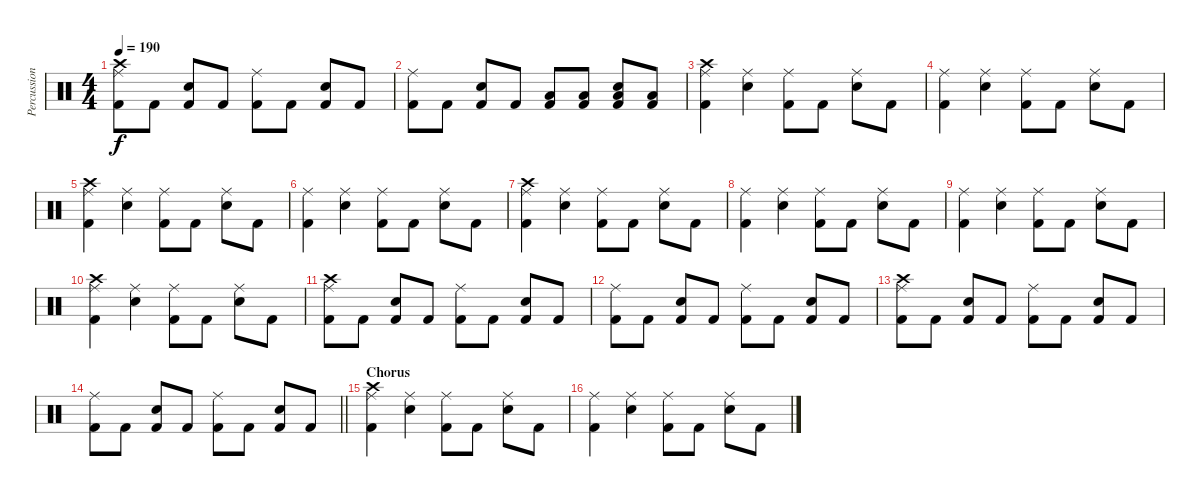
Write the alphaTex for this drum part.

\track ("Percussion" "Percussion") {instrument percussion}
\staff {score}
\articulation defaults
\ts (4 4)
\tempo 190
\clef neutral
\ks c
("Ride (middle)" "Kick (hit) 2" "Crash high (hit)").8{dy f} "Kick (hit) 2".8 ("Snare (hit) 2" "Kick (hit) 2").8 "Kick (hit) 2".8 ("Ride (middle)" "Kick (hit) 2").8 "Kick (hit) 2".8 ("Snare (hit) 2" "Kick (hit) 2").8 "Kick (hit) 2".8 |
("Ride (middle)" "Kick (hit) 2").8 "Kick (hit) 2".8 ("Snare (hit) 2" "Kick (hit) 2").8 "Kick (hit) 2".8 ("Low Floor Tom (hit)" "Kick (hit) 2").8 ("Low Floor Tom (hit)" "Kick (hit) 2").8 ("Low Floor Tom (hit)" "Snare (hit) 2" "Kick (hit) 2").8 ("Low Floor Tom (hit)" "Kick (hit) 2").8 |
("Ride (middle)" "Kick (hit) 2" "Crash high (hit)").4 ("Ride (middle)" "Snare (hit) 2").4 ("Ride (middle)" "Kick (hit) 2").8 "Kick (hit) 2".8 ("Ride (middle)" "Snare (hit) 2").8 "Kick (hit) 2".8 |
("Ride (middle)" "Kick (hit) 2").4 ("Ride (middle)" "Snare (hit) 2").4 ("Ride (middle)" "Kick (hit) 2").8 "Kick (hit) 2".8 ("Ride (middle)" "Snare (hit) 2").8 "Kick (hit) 2".8 |
("Ride (middle)" "Kick (hit) 2" "Crash high (hit)").4 ("Ride (middle)" "Snare (hit) 2").4 ("Ride (middle)" "Kick (hit) 2").8 "Kick (hit) 2".8 ("Ride (middle)" "Snare (hit) 2").8 "Kick (hit) 2".8 |
("Ride (middle)" "Kick (hit) 2").4 ("Ride (middle)" "Snare (hit) 2").4 ("Ride (middle)" "Kick (hit) 2").8 "Kick (hit) 2".8 ("Ride (middle)" "Snare (hit) 2").8 "Kick (hit) 2".8 |
("Ride (middle)" "Kick (hit) 2" "Crash high (hit)").4 ("Ride (middle)" "Snare (hit) 2").4 ("Ride (middle)" "Kick (hit) 2").8 "Kick (hit) 2".8 ("Ride (middle)" "Snare (hit) 2").8 "Kick (hit) 2".8 |
("Ride (middle)" "Kick (hit) 2").4 ("Ride (middle)" "Snare (hit) 2").4 ("Ride (middle)" "Kick (hit) 2").8 "Kick (hit) 2".8 ("Ride (middle)" "Snare (hit) 2").8 "Kick (hit) 2".8 |
("Ride (middle)" "Kick (hit) 2").4 ("Ride (middle)" "Snare (hit) 2").4 ("Ride (middle)" "Kick (hit) 2").8 "Kick (hit) 2".8 ("Ride (middle)" "Snare (hit) 2").8 "Kick (hit) 2".8 |
("Ride (middle)" "Kick (hit) 2" "Crash high (hit)").4 ("Ride (middle)" "Snare (hit) 2").4 ("Ride (middle)" "Kick (hit) 2").8 "Kick (hit) 2".8 ("Ride (middle)" "Snare (hit) 2").8 "Kick (hit) 2".8 |
("Ride (middle)" "Kick (hit) 2" "Crash high (hit)").8 "Kick (hit) 2".8 ("Snare (hit) 2" "Kick (hit) 2").8 "Kick (hit) 2".8 ("Ride (middle)" "Kick (hit) 2").8 "Kick (hit) 2".8 ("Snare (hit) 2" "Kick (hit) 2").8 "Kick (hit) 2".8 |
("Ride (middle)" "Kick (hit) 2").8 "Kick (hit) 2".8 ("Snare (hit) 2" "Kick (hit) 2").8 "Kick (hit) 2".8 ("Ride (middle)" "Kick (hit) 2").8 "Kick (hit) 2".8 ("Snare (hit) 2" "Kick (hit) 2").8 "Kick (hit) 2".8 |
("Ride (middle)" "Kick (hit) 2" "Crash high (hit)").8 "Kick (hit) 2".8 ("Snare (hit) 2" "Kick (hit) 2").8 "Kick (hit) 2".8 ("Ride (middle)" "Kick (hit) 2").8 "Kick (hit) 2".8 ("Snare (hit) 2" "Kick (hit) 2").8 "Kick (hit) 2".8 |
\barLineRight lightlight
("Ride (middle)" "Kick (hit) 2").8 "Kick (hit) 2".8 ("Snare (hit) 2" "Kick (hit) 2").8 "Kick (hit) 2".8 ("Ride (middle)" "Kick (hit) 2").8 "Kick (hit) 2".8 ("Snare (hit) 2" "Kick (hit) 2").8 "Kick (hit) 2".8 |
\section ("" "Chorus")
("Ride (middle)" "Kick (hit) 2" "Crash high (hit)").4 ("Ride (middle)" "Snare (hit) 2").4 ("Ride (middle)" "Kick (hit) 2").8 "Kick (hit) 2".8 ("Ride (middle)" "Snare (hit) 2").8 "Kick (hit) 2".8 |
("Ride (middle)" "Kick (hit) 2").4 ("Ride (middle)" "Snare (hit) 2").4 ("Ride (middle)" "Kick (hit) 2").8 "Kick (hit) 2".8 ("Ride (middle)" "Snare (hit) 2").8 "Kick (hit) 2".8
